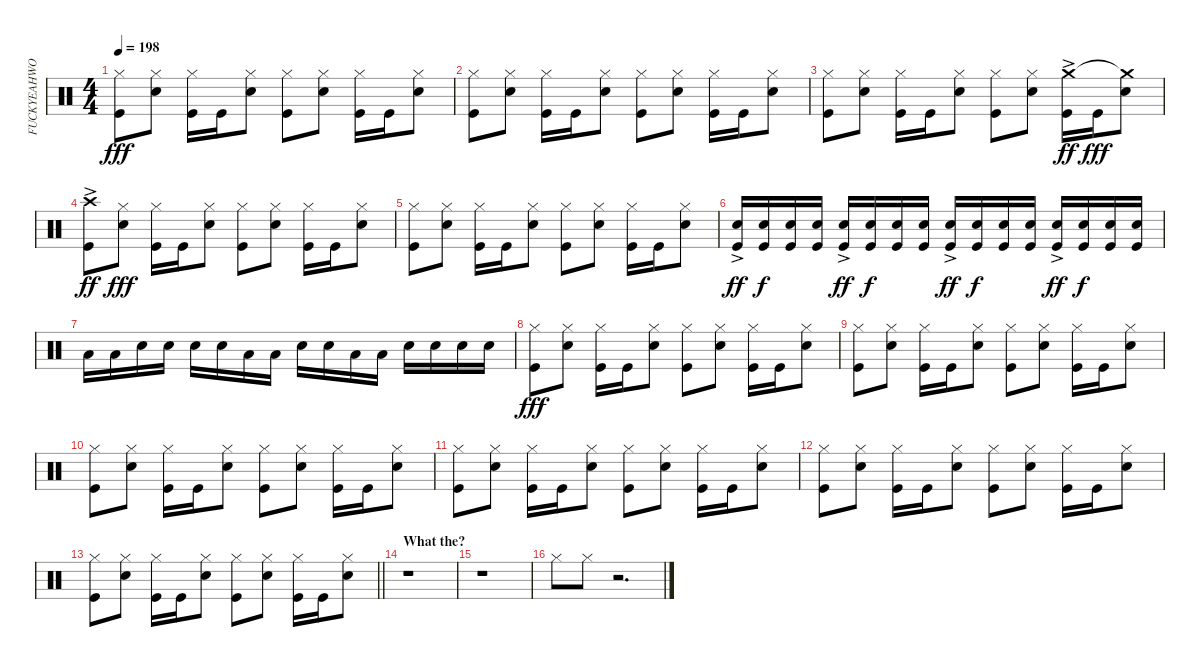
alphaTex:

\track ("FUCKYEAHWOOTDAVEMACKINTOSH!(Percussion)" "FUCKYEAHWO") {instrument percussion}
\staff {score}
\articulation defaults
\ts (4 4)
\tempo 198
\clef neutral
\ks c
("Kick (hit)" "Hi-Hat (closed)").8{dy fff} ("Snare (hit) 2" "Hi-Hat (closed)").8 ("Kick (hit)" "Hi-Hat (closed)").16 "Kick (hit)".16 ("Hi-Hat (closed)" "Snare (hit) 2").8 ("Kick (hit)" "Hi-Hat (closed)").8 ("Snare (hit) 2" "Hi-Hat (closed)").8 ("Kick (hit)" "Hi-Hat (closed)").16 "Kick (hit)".16 ("Snare (hit) 2" "Hi-Hat (closed)").8 |
("Kick (hit)" "Hi-Hat (closed)").8 ("Snare (hit) 2" "Hi-Hat (closed)").8 ("Kick (hit)" "Hi-Hat (closed)").16 "Kick (hit)".16 ("Hi-Hat (closed)" "Snare (hit) 2").8 ("Kick (hit)" "Hi-Hat (closed)").8 ("Snare (hit) 2" "Hi-Hat (closed)").8 ("Kick (hit)" "Hi-Hat (closed)").16 "Kick (hit)".16 ("Snare (hit) 2" "Hi-Hat (closed)").8 |
("Kick (hit)" "Hi-Hat (closed)").8 ("Snare (hit) 2" "Hi-Hat (closed)").8 ("Kick (hit)" "Hi-Hat (closed)").16 "Kick (hit)".16 ("Hi-Hat (closed)" "Snare (hit) 2").8 ("Kick (hit)" "Hi-Hat (closed)").8 ("Snare (hit) 2" "Hi-Hat (closed)").8 ("Kick (hit)" "Crash medium (hit)"{ac}).16{dy ff} "Kick (hit)".16{dy fff} ("Snare (hit) 2" "Crash medium (hit)"{t}).8 |
("Kick (hit)" "Crash high (hit)"{ac}).8{dy ff} ("Snare (hit) 2" "Hi-Hat (closed)").8{dy fff} ("Kick (hit)" "Hi-Hat (closed)").16 "Kick (hit)".16 ("Hi-Hat (closed)" "Snare (hit) 2").8 ("Kick (hit)" "Hi-Hat (closed)").8 ("Snare (hit) 2" "Hi-Hat (closed)").8 ("Kick (hit)" "Hi-Hat (closed)").16 "Kick (hit)".16 ("Snare (hit) 2" "Hi-Hat (closed)").8 |
("Kick (hit)" "Hi-Hat (closed)").8 ("Snare (hit) 2" "Hi-Hat (closed)").8 ("Kick (hit)" "Hi-Hat (closed)").16 "Kick (hit)".16 ("Hi-Hat (closed)" "Snare (hit) 2").8 ("Kick (hit)" "Hi-Hat (closed)").8 ("Snare (hit) 2" "Hi-Hat (closed)").8 ("Kick (hit)" "Hi-Hat (closed)").16 "Kick (hit)".16 ("Snare (hit) 2" "Hi-Hat (closed)").8 |
("Snare (hit) 2"{ac} "Kick (hit)").16{dy ff} ("Kick (hit)" "Snare (hit) 2").16{dy f} ("Snare (hit) 2" "Kick (hit)").16 ("Kick (hit)" "Snare (hit) 2").16 ("Kick (hit)" "Snare (hit) 2"{ac}).16{dy ff} ("Kick (hit)" "Snare (hit) 2").16{dy f} ("Snare (hit) 2" "Kick (hit)").16 ("Kick (hit)" "Snare (hit) 2").16 ("Kick (hit)" "Snare (hit) 2"{ac}).16{dy ff} ("Kick (hit)" "Snare (hit) 2").16{dy f} ("Kick (hit)" "Snare (hit) 2").16 ("Kick (hit)" "Snare (hit) 2").16 ("Kick (hit)" "Snare (hit) 2"{ac}).16{dy ff} ("Kick (hit)" "Snare (hit) 2").16{dy f} ("Kick (hit)" "Snare (hit) 2").16 ("Kick (hit)" "Snare (hit) 2").16 |
"Low Tom (hit)".16 "Low Tom (hit)".16 "Snare (hit) 2".16 "Snare (hit) 2".16 "Snare (hit) 2".16 "Snare (hit) 2".16 "Low Tom (hit)".16 "Low Tom (hit)".16 "Snare (hit) 2".16 "Snare (hit) 2".16 "Low Tom (hit)".16 "Low Tom (hit)".16 "Snare (hit) 2".16 "Snare (hit) 2".16 "Snare (hit) 2".16 "Snare (hit) 2".16 |
("Kick (hit)" "Hi-Hat (closed)").8{dy fff} ("Snare (hit) 2" "Hi-Hat (closed)").8 ("Kick (hit)" "Hi-Hat (closed)").16 "Kick (hit)".16 ("Hi-Hat (closed)" "Snare (hit) 2").8 ("Kick (hit)" "Hi-Hat (closed)").8 ("Snare (hit) 2" "Hi-Hat (closed)").8 ("Kick (hit)" "Hi-Hat (closed)").16 "Kick (hit)".16 ("Snare (hit) 2" "Hi-Hat (closed)").8 |
("Kick (hit)" "Hi-Hat (closed)").8 ("Snare (hit) 2" "Hi-Hat (closed)").8 ("Kick (hit)" "Hi-Hat (closed)").16 "Kick (hit)".16 ("Hi-Hat (closed)" "Snare (hit) 2").8 ("Kick (hit)" "Hi-Hat (closed)").8 ("Snare (hit) 2" "Hi-Hat (closed)").8 ("Kick (hit)" "Hi-Hat (closed)").16 "Kick (hit)".16 ("Snare (hit) 2" "Hi-Hat (closed)").8 |
("Kick (hit)" "Hi-Hat (closed)").8 ("Snare (hit) 2" "Hi-Hat (closed)").8 ("Kick (hit)" "Hi-Hat (closed)").16 "Kick (hit)".16 ("Hi-Hat (closed)" "Snare (hit) 2").8 ("Kick (hit)" "Hi-Hat (closed)").8 ("Snare (hit) 2" "Hi-Hat (closed)").8 ("Kick (hit)" "Hi-Hat (closed)").16 "Kick (hit)".16 ("Snare (hit) 2" "Hi-Hat (closed)").8 |
("Kick (hit)" "Hi-Hat (closed)").8 ("Snare (hit) 2" "Hi-Hat (closed)").8 ("Kick (hit)" "Hi-Hat (closed)").16 "Kick (hit)".16 ("Hi-Hat (closed)" "Snare (hit) 2").8 ("Kick (hit)" "Hi-Hat (closed)").8 ("Snare (hit) 2" "Hi-Hat (closed)").8 ("Kick (hit)" "Hi-Hat (closed)").16 "Kick (hit)".16 ("Snare (hit) 2" "Hi-Hat (closed)").8 |
("Kick (hit)" "Hi-Hat (closed)").8 ("Snare (hit) 2" "Hi-Hat (closed)").8 ("Kick (hit)" "Hi-Hat (closed)").16 "Kick (hit)".16 ("Hi-Hat (closed)" "Snare (hit) 2").8 ("Kick (hit)" "Hi-Hat (closed)").8 ("Snare (hit) 2" "Hi-Hat (closed)").8 ("Kick (hit)" "Hi-Hat (closed)").16 "Kick (hit)".16 ("Snare (hit) 2" "Hi-Hat (closed)").8 |
\barLineRight lightlight
("Kick (hit)" "Hi-Hat (closed)").8 ("Snare (hit) 2" "Hi-Hat (closed)").8 ("Kick (hit)" "Hi-Hat (closed)").16 "Kick (hit)".16 ("Hi-Hat (closed)" "Snare (hit) 2").8 ("Kick (hit)" "Hi-Hat (closed)").8 ("Snare (hit) 2" "Hi-Hat (closed)").8 ("Kick (hit)" "Hi-Hat (closed)").16 "Kick (hit)".16 ("Snare (hit) 2" "Hi-Hat (closed)").8 |
\section ("" "What the?")
r.1 |
r.1 |
"Hi-Hat (closed)".8 "Hi-Hat (closed)".8 r.2{d}
